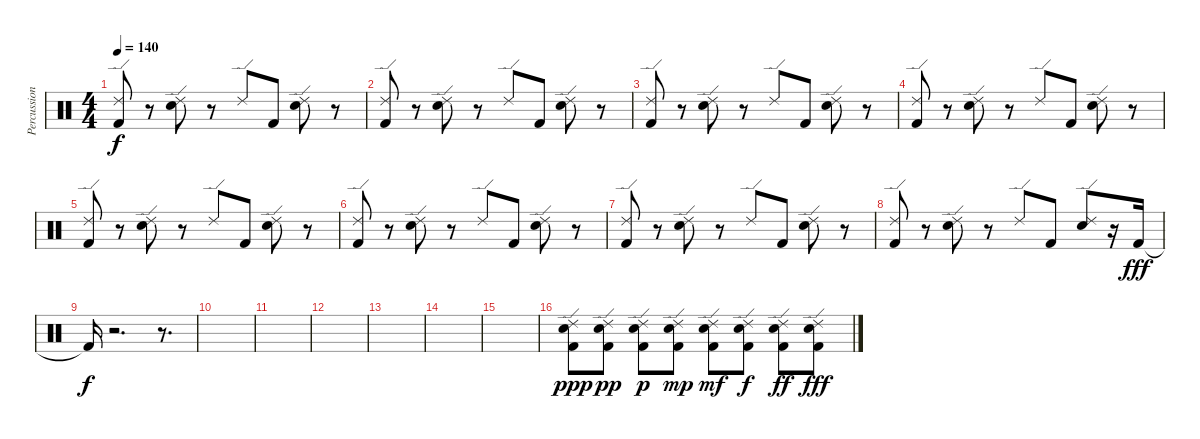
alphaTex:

\track ("Percussion" "Percussion") {instrument percussion}
\staff {score}
\articulation defaults
\ts (4 4)
\tempo 140
\clef neutral
\ks c
("Ride (edge) 2" "Kick (hit) 2").8{dy f} r.8 ("Ride (edge) 2" "Snare (hit) 2").8 r.8 "Ride (edge) 2".8 "Kick (hit) 2".8 ("Ride (edge) 2" "Snare (hit) 2").8 r.8 |
("Ride (edge) 2" "Kick (hit) 2").8 r.8 ("Ride (edge) 2" "Snare (hit) 2").8 r.8 "Ride (edge) 2".8 "Kick (hit) 2".8 ("Ride (edge) 2" "Snare (hit) 2").8 r.8 |
("Ride (edge) 2" "Kick (hit) 2").8 r.8 ("Ride (edge) 2" "Snare (hit) 2").8 r.8 "Ride (edge) 2".8 "Kick (hit) 2".8 ("Ride (edge) 2" "Snare (hit) 2").8 r.8 |
("Ride (edge) 2" "Kick (hit) 2").8 r.8 ("Ride (edge) 2" "Snare (hit) 2").8 r.8 "Ride (edge) 2".8 "Kick (hit) 2".8 ("Ride (edge) 2" "Snare (hit) 2").8 r.8 |
("Ride (edge) 2" "Kick (hit) 2").8 r.8 ("Ride (edge) 2" "Snare (hit) 2").8 r.8 "Ride (edge) 2".8 "Kick (hit) 2".8 ("Ride (edge) 2" "Snare (hit) 2").8 r.8 |
("Ride (edge) 2" "Kick (hit) 2").8 r.8 ("Ride (edge) 2" "Snare (hit) 2").8 r.8 "Ride (edge) 2".8 "Kick (hit) 2".8 ("Ride (edge) 2" "Snare (hit) 2").8 r.8 |
("Ride (edge) 2" "Kick (hit) 2").8 r.8 ("Ride (edge) 2" "Snare (hit) 2").8 r.8 "Ride (edge) 2".8 "Kick (hit) 2".8 ("Ride (edge) 2" "Snare (hit) 2").8 r.8 |
("Ride (edge) 2" "Kick (hit) 2").8 r.8 ("Ride (edge) 2" "Snare (hit) 2").8 r.8 "Ride (edge) 2".8 "Kick (hit) 2".8 ("Ride (edge) 2" "Snare (hit) 2").8 r.16 "Kick (hit) 2".16{dy fff} |
"Kick (hit) 2"{t}.16{dy f} r.2{d} r.8{d} |
|
|
|
|
|
|
("Ride (edge) 2" "Snare (hit) 2" "Kick (hit) 2").8{dy ppp} ("Ride (edge) 2" "Snare (hit) 2" "Kick (hit) 2").8{dy pp} ("Ride (edge) 2" "Snare (hit) 2" "Kick (hit) 2").8{dy p} ("Ride (edge) 2" "Snare (hit) 2" "Kick (hit) 2").8{dy mp} ("Ride (edge) 2" "Snare (hit) 2" "Kick (hit) 2").8{dy mf} ("Ride (edge) 2" "Snare (hit) 2" "Kick (hit) 2").8{dy f} ("Ride (edge) 2" "Snare (hit) 2" "Kick (hit) 2").8{dy ff} ("Ride (edge) 2" "Snare (hit) 2" "Kick (hit) 2").8{dy fff}
